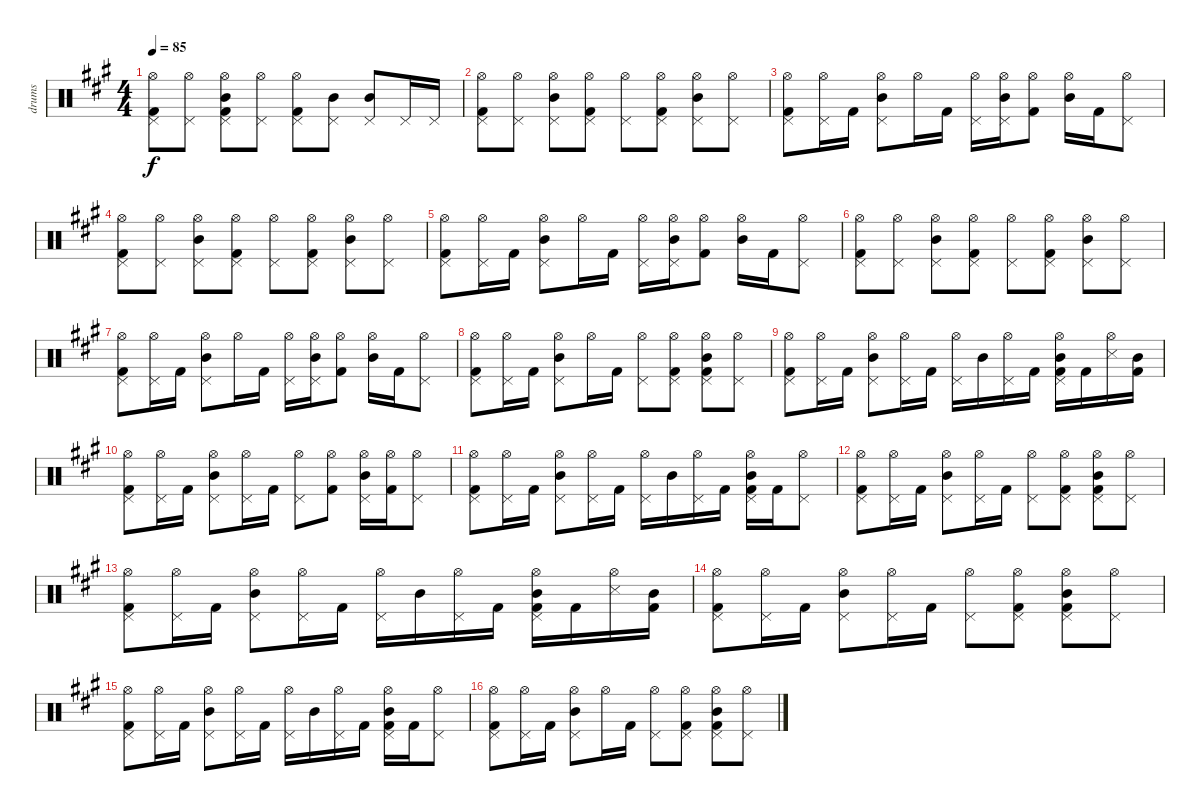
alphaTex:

\track ("drums" "drums") {instrument percussion}
\staff {score}
\articulation defaults
\ts (4 4)
\tempo 85
\clef neutral
\ks a
("Hi-Hat (open)" "Pedal Hi-Hat (hit)" "Kick (hit) 2").8{dy f} ("Hi-Hat (open)" "Pedal Hi-Hat (hit)").8 ("Hi-Hat (open)" "Mid Tom (hit)" "Pedal Hi-Hat (hit)" "Kick (hit) 2").8 ("Hi-Hat (open)" "Pedal Hi-Hat (hit)").8 ("Hi-Hat (open)" "Pedal Hi-Hat (hit)" "Kick (hit) 2").8 ("Mid Tom (hit)" "Pedal Hi-Hat (hit)").8 ("Mid Tom (hit)" "Pedal Hi-Hat (hit)").8 "Pedal Hi-Hat (hit)".16 "Pedal Hi-Hat (hit)".16 |
("Hi-Hat (open)" "Pedal Hi-Hat (hit)" "Kick (hit) 2").8 ("Hi-Hat (open)" "Pedal Hi-Hat (hit)").8 ("Hi-Hat (open)" "Mid Tom (hit)" "Pedal Hi-Hat (hit)").8 ("Hi-Hat (open)" "Pedal Hi-Hat (hit)" "Kick (hit) 2").8 ("Hi-Hat (open)" "Pedal Hi-Hat (hit)").8 ("Hi-Hat (open)" "Pedal Hi-Hat (hit)" "Kick (hit) 2").8 ("Hi-Hat (open)" "Mid Tom (hit)" "Pedal Hi-Hat (hit)").8 ("Hi-Hat (open)" "Pedal Hi-Hat (hit)").8 |
("Hi-Hat (open)" "Pedal Hi-Hat (hit)" "Kick (hit) 2").8 ("Hi-Hat (open)" "Pedal Hi-Hat (hit)").16 "Kick (hit) 2".16 ("Hi-Hat (open)" "Mid Tom (hit)" "Pedal Hi-Hat (hit)").8 "Hi-Hat (open)".16 "Kick (hit) 2".16 ("Hi-Hat (open)" "Pedal Hi-Hat (hit)").16 ("Hi-Hat (open)" "Mid Tom (hit)" "Pedal Hi-Hat (hit)").16 ("Hi-Hat (open)" "Kick (hit) 2").8 ("Hi-Hat (open)" "Mid Tom (hit)").16 "Kick (hit) 2".16 ("Hi-Hat (open)" "Pedal Hi-Hat (hit)").8 |
("Hi-Hat (open)" "Pedal Hi-Hat (hit)" "Kick (hit) 2").8 ("Hi-Hat (open)" "Pedal Hi-Hat (hit)").8 ("Hi-Hat (open)" "Mid Tom (hit)" "Pedal Hi-Hat (hit)").8 ("Hi-Hat (open)" "Pedal Hi-Hat (hit)" "Kick (hit) 2").8 ("Hi-Hat (open)" "Pedal Hi-Hat (hit)").8 ("Hi-Hat (open)" "Pedal Hi-Hat (hit)" "Kick (hit) 2").8 ("Hi-Hat (open)" "Mid Tom (hit)" "Pedal Hi-Hat (hit)").8 ("Hi-Hat (open)" "Pedal Hi-Hat (hit)").8 |
("Hi-Hat (open)" "Pedal Hi-Hat (hit)" "Kick (hit) 2").8 ("Hi-Hat (open)" "Pedal Hi-Hat (hit)").16 "Kick (hit) 2".16 ("Hi-Hat (open)" "Mid Tom (hit)" "Pedal Hi-Hat (hit)").8 "Hi-Hat (open)".16 "Kick (hit) 2".16 ("Hi-Hat (open)" "Pedal Hi-Hat (hit)").16 ("Hi-Hat (open)" "Mid Tom (hit)" "Pedal Hi-Hat (hit)").16 ("Hi-Hat (open)" "Kick (hit) 2").8 ("Hi-Hat (open)" "Mid Tom (hit)").16 "Kick (hit) 2".16 ("Hi-Hat (open)" "Pedal Hi-Hat (hit)").8 |
("Hi-Hat (open)" "Pedal Hi-Hat (hit)" "Kick (hit) 2").8 ("Hi-Hat (open)" "Pedal Hi-Hat (hit)").8 ("Hi-Hat (open)" "Mid Tom (hit)" "Pedal Hi-Hat (hit)").8 ("Hi-Hat (open)" "Pedal Hi-Hat (hit)" "Kick (hit) 2").8 ("Hi-Hat (open)" "Pedal Hi-Hat (hit)").8 ("Hi-Hat (open)" "Pedal Hi-Hat (hit)" "Kick (hit) 2").8 ("Hi-Hat (open)" "Mid Tom (hit)" "Pedal Hi-Hat (hit)").8 ("Hi-Hat (open)" "Pedal Hi-Hat (hit)").8 |
("Hi-Hat (open)" "Pedal Hi-Hat (hit)" "Kick (hit) 2").8 ("Hi-Hat (open)" "Pedal Hi-Hat (hit)").16 "Kick (hit) 2".16 ("Hi-Hat (open)" "Mid Tom (hit)" "Pedal Hi-Hat (hit)").8 "Hi-Hat (open)".16 "Kick (hit) 2".16 ("Hi-Hat (open)" "Pedal Hi-Hat (hit)").16 ("Hi-Hat (open)" "Mid Tom (hit)" "Pedal Hi-Hat (hit)").16 ("Hi-Hat (open)" "Kick (hit) 2").8 ("Hi-Hat (open)" "Mid Tom (hit)").16 "Kick (hit) 2".16 ("Hi-Hat (open)" "Pedal Hi-Hat (hit)").8 |
("Hi-Hat (open)" "Pedal Hi-Hat (hit)" "Kick (hit) 2").8 ("Hi-Hat (open)" "Pedal Hi-Hat (hit)").16 "Kick (hit) 2".16 ("Hi-Hat (open)" "Mid Tom (hit)" "Pedal Hi-Hat (hit)").8 "Hi-Hat (open)".16 "Kick (hit) 2".16 ("Hi-Hat (open)" "Pedal Hi-Hat (hit)").8 ("Hi-Hat (open)" "Pedal Hi-Hat (hit)" "Kick (hit) 2").8 ("Hi-Hat (open)" "Mid Tom (hit)" "Pedal Hi-Hat (hit)" "Kick (hit) 2").8 ("Hi-Hat (open)" "Pedal Hi-Hat (hit)").8 |
("Hi-Hat (open)" "Pedal Hi-Hat (hit)" "Kick (hit) 2").8 ("Hi-Hat (open)" "Pedal Hi-Hat (hit)").16 "Kick (hit) 2".16 ("Hi-Hat (open)" "Mid Tom (hit)" "Pedal Hi-Hat (hit)").8 ("Hi-Hat (open)" "Pedal Hi-Hat (hit)").16 "Kick (hit) 2".16 ("Hi-Hat (open)" "Pedal Hi-Hat (hit)").16 "Mid Tom (hit)".16 ("Hi-Hat (open)" "Pedal Hi-Hat (hit)").16 "Kick (hit) 2".16 ("Hi-Hat (open)" "Mid Tom (hit)" "Pedal Hi-Hat (hit)" "Kick (hit) 2").16 "Kick (hit) 2".16 ("Hi-Hat (open)" "Snare (side stick) 3").16 ("Mid Tom (hit)" "Kick (hit) 2").16 |
("Hi-Hat (open)" "Pedal Hi-Hat (hit)" "Kick (hit) 2").8 ("Hi-Hat (open)" "Pedal Hi-Hat (hit)").16 "Kick (hit) 2".16 ("Hi-Hat (open)" "Mid Tom (hit)" "Pedal Hi-Hat (hit)").8 ("Hi-Hat (open)" "Pedal Hi-Hat (hit)").16 "Kick (hit) 2".16 ("Hi-Hat (open)" "Pedal Hi-Hat (hit)").8 ("Hi-Hat (open)" "Kick (hit) 2").8 ("Hi-Hat (open)" "Mid Tom (hit)" "Pedal Hi-Hat (hit)").16 ("Hi-Hat (open)" "Kick (hit) 2").16 ("Hi-Hat (open)" "Pedal Hi-Hat (hit)").8 |
("Hi-Hat (open)" "Pedal Hi-Hat (hit)" "Kick (hit) 2").8 ("Hi-Hat (open)" "Pedal Hi-Hat (hit)").16 "Kick (hit) 2".16 ("Hi-Hat (open)" "Mid Tom (hit)" "Pedal Hi-Hat (hit)").8 ("Hi-Hat (open)" "Pedal Hi-Hat (hit)").16 "Kick (hit) 2".16 ("Hi-Hat (open)" "Pedal Hi-Hat (hit)").16 "Mid Tom (hit)".16 ("Hi-Hat (open)" "Pedal Hi-Hat (hit)").16 "Kick (hit) 2".16 ("Hi-Hat (open)" "Mid Tom (hit)" "Pedal Hi-Hat (hit)" "Kick (hit) 2").16 "Kick (hit) 2".16 ("Hi-Hat (open)" "Pedal Hi-Hat (hit)").8 |
("Hi-Hat (open)" "Pedal Hi-Hat (hit)" "Kick (hit) 2").8 ("Hi-Hat (open)" "Pedal Hi-Hat (hit)").16 "Kick (hit) 2".16 ("Hi-Hat (open)" "Mid Tom (hit)" "Pedal Hi-Hat (hit)").8 ("Hi-Hat (open)" "Pedal Hi-Hat (hit)").16 "Kick (hit) 2".16 ("Hi-Hat (open)" "Pedal Hi-Hat (hit)").8 ("Hi-Hat (open)" "Pedal Hi-Hat (hit)" "Kick (hit) 2").8 ("Hi-Hat (open)" "Mid Tom (hit)" "Pedal Hi-Hat (hit)" "Kick (hit) 2").8 ("Hi-Hat (open)" "Pedal Hi-Hat (hit)").8 |
("Hi-Hat (open)" "Pedal Hi-Hat (hit)" "Kick (hit) 2").8 ("Hi-Hat (open)" "Pedal Hi-Hat (hit)").16 "Kick (hit) 2".16 ("Hi-Hat (open)" "Mid Tom (hit)" "Pedal Hi-Hat (hit)").8 ("Hi-Hat (open)" "Pedal Hi-Hat (hit)").16 "Kick (hit) 2".16 ("Hi-Hat (open)" "Pedal Hi-Hat (hit)").16 "Mid Tom (hit)".16 ("Hi-Hat (open)" "Pedal Hi-Hat (hit)").16 "Kick (hit) 2".16 ("Hi-Hat (open)" "Mid Tom (hit)" "Pedal Hi-Hat (hit)" "Kick (hit) 2").16 "Kick (hit) 2".16 ("Hi-Hat (open)" "Snare (side stick) 3").16 ("Mid Tom (hit)" "Kick (hit) 2").16 |
("Hi-Hat (open)" "Pedal Hi-Hat (hit)" "Kick (hit) 2").8 ("Hi-Hat (open)" "Pedal Hi-Hat (hit)").16 "Kick (hit) 2".16 ("Hi-Hat (open)" "Mid Tom (hit)" "Pedal Hi-Hat (hit)").8 ("Hi-Hat (open)" "Pedal Hi-Hat (hit)").16 "Kick (hit) 2".16 ("Hi-Hat (open)" "Pedal Hi-Hat (hit)").8 ("Hi-Hat (open)" "Pedal Hi-Hat (hit)" "Kick (hit) 2").8 ("Hi-Hat (open)" "Mid Tom (hit)" "Pedal Hi-Hat (hit)" "Kick (hit) 2").8 ("Hi-Hat (open)" "Pedal Hi-Hat (hit)").8 |
("Hi-Hat (open)" "Pedal Hi-Hat (hit)" "Kick (hit) 2").8 ("Hi-Hat (open)" "Pedal Hi-Hat (hit)").16 "Kick (hit) 2".16 ("Hi-Hat (open)" "Mid Tom (hit)" "Pedal Hi-Hat (hit)").8 ("Hi-Hat (open)" "Pedal Hi-Hat (hit)").16 "Kick (hit) 2".16 ("Hi-Hat (open)" "Pedal Hi-Hat (hit)").16 "Mid Tom (hit)".16 ("Hi-Hat (open)" "Pedal Hi-Hat (hit)").16 "Kick (hit) 2".16 ("Hi-Hat (open)" "Mid Tom (hit)" "Pedal Hi-Hat (hit)" "Kick (hit) 2").16 "Kick (hit) 2".16 ("Hi-Hat (open)" "Pedal Hi-Hat (hit)").8 |
("Hi-Hat (open)" "Pedal Hi-Hat (hit)" "Kick (hit) 2").8 ("Hi-Hat (open)" "Pedal Hi-Hat (hit)").16 "Kick (hit) 2".16 ("Hi-Hat (open)" "Mid Tom (hit)" "Pedal Hi-Hat (hit)").8 "Hi-Hat (open)".16 "Kick (hit) 2".16 ("Hi-Hat (open)" "Pedal Hi-Hat (hit)").8 ("Hi-Hat (open)" "Pedal Hi-Hat (hit)" "Kick (hit) 2").8 ("Hi-Hat (open)" "Mid Tom (hit)" "Pedal Hi-Hat (hit)" "Kick (hit) 2").8 ("Hi-Hat (open)" "Pedal Hi-Hat (hit)").8
